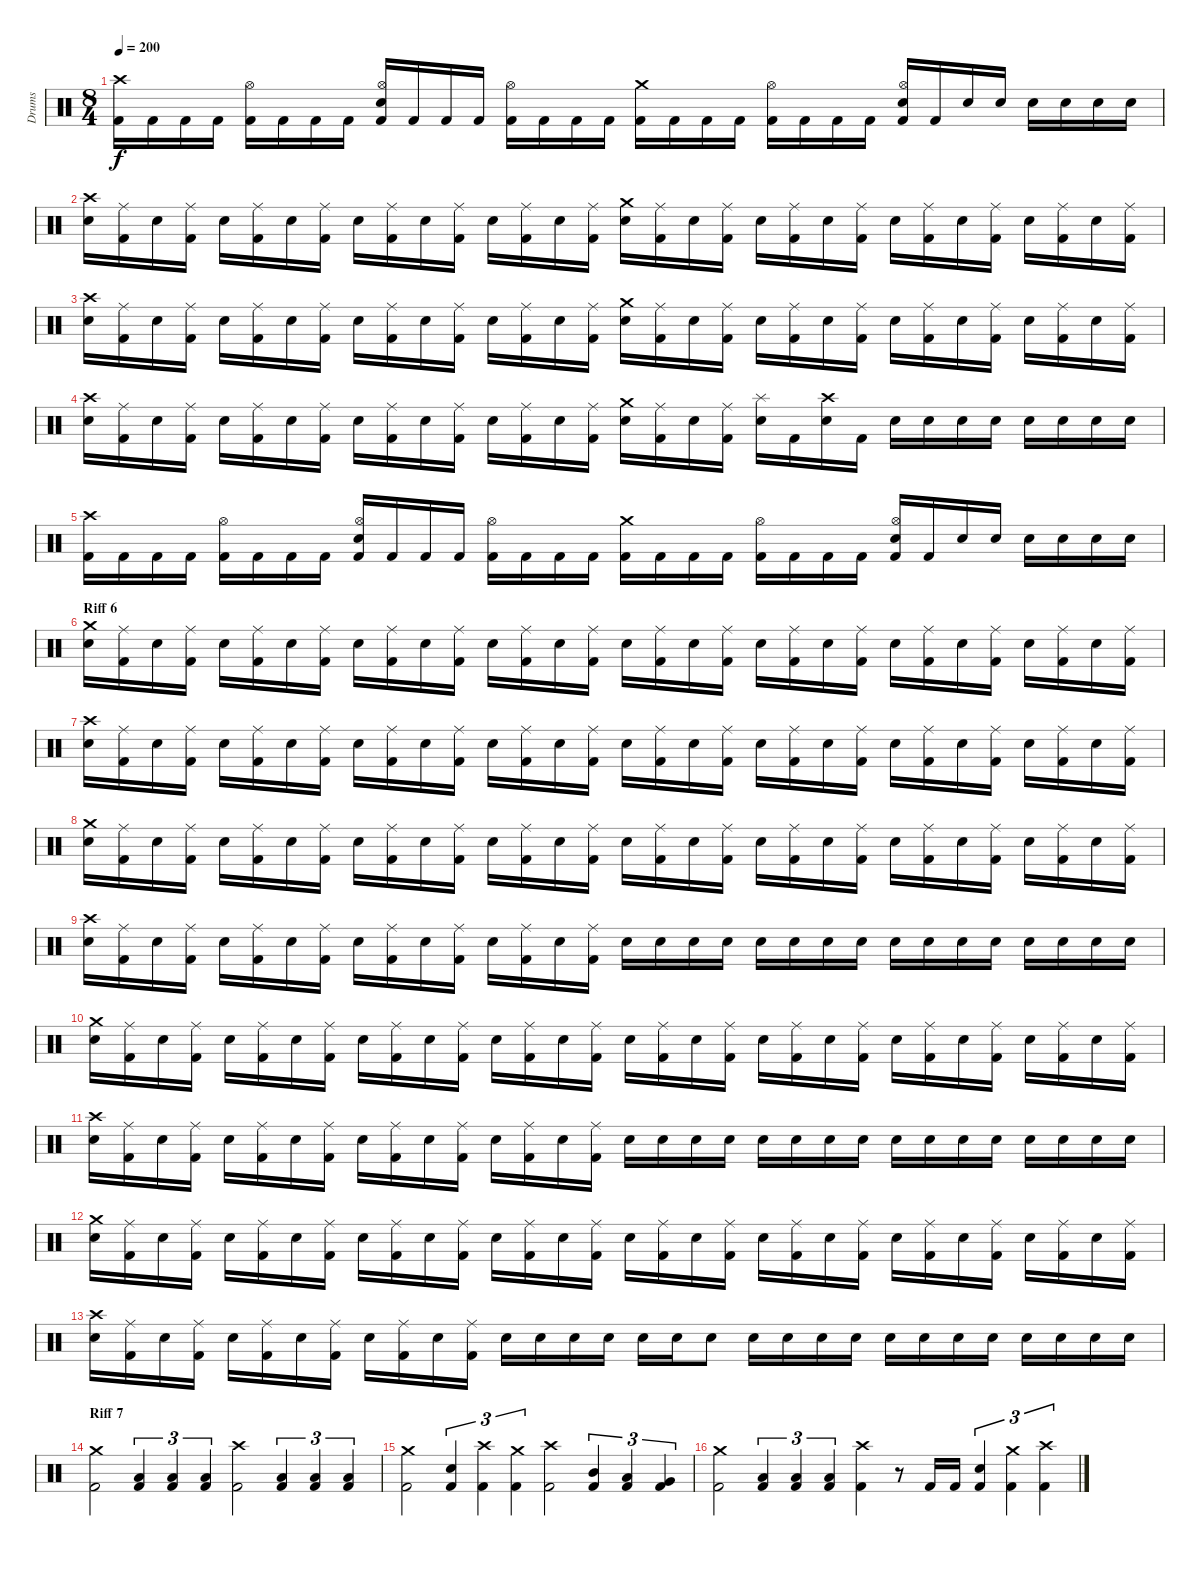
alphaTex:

\track ("Drums" "Drums") {instrument percussion}
\staff {score}
\articulation defaults
\ts (8 4)
\tempo 200
\clef neutral
\ks c
("Crash high (hit)" "Kick (hit) 2").16{dy f} "Kick (hit) 2".16 "Kick (hit) 2".16 "Kick (hit) 2".16 ("Hi-Hat (open)" "Kick (hit) 2").16 "Kick (hit) 2".16 "Kick (hit) 2".16 "Kick (hit) 2".16 ("Hi-Hat (open)" "Electric Snare (hit)" "Kick (hit) 2").16 "Kick (hit) 2".16 "Kick (hit) 2".16 "Kick (hit) 2".16 ("Hi-Hat (open)" "Kick (hit) 2").16 "Kick (hit) 2".16 "Kick (hit) 2".16 "Kick (hit) 2".16 ("Crash medium (hit)" "Kick (hit) 2").16 "Kick (hit) 2".16 "Kick (hit) 2".16 "Kick (hit) 2".16 ("Hi-Hat (open)" "Kick (hit) 2").16 "Kick (hit) 2".16 "Kick (hit) 2".16 "Kick (hit) 2".16 ("Hi-Hat (open)" "Electric Snare (hit)" "Kick (hit) 2").16 "Kick (hit) 2".16 "Electric Snare (hit)".16 "Electric Snare (hit)".16 "Electric Snare (hit)".16 "Electric Snare (hit)".16 "Electric Snare (hit)".16 "Electric Snare (hit)".16 |
("Crash high (hit)" "Electric Snare (hit)").16 ("Ride (middle)" "Kick (hit) 2").16 "Electric Snare (hit)".16 ("Ride (middle)" "Kick (hit) 2").16 "Electric Snare (hit)".16 ("Ride (middle)" "Kick (hit) 2").16 "Electric Snare (hit)".16 ("Ride (middle)" "Kick (hit) 2").16 "Electric Snare (hit)".16 ("Ride (middle)" "Kick (hit) 2").16 "Electric Snare (hit)".16 ("Ride (middle)" "Kick (hit) 2").16 "Electric Snare (hit)".16 ("Ride (middle)" "Kick (hit) 2").16 "Electric Snare (hit)".16 ("Ride (middle)" "Kick (hit) 2").16 ("Crash medium (hit)" "Electric Snare (hit)").16 ("Ride (middle)" "Kick (hit) 2").16 "Electric Snare (hit)".16 ("Ride (middle)" "Kick (hit) 2").16 "Electric Snare (hit)".16 ("Ride (middle)" "Kick (hit) 2").16 "Electric Snare (hit)".16 ("Ride (middle)" "Kick (hit) 2").16 "Electric Snare (hit)".16 ("Ride (middle)" "Kick (hit) 2").16 "Electric Snare (hit)".16 ("Ride (middle)" "Kick (hit) 2").16 "Electric Snare (hit)".16 ("Ride (middle)" "Kick (hit) 2").16 "Electric Snare (hit)".16 ("Ride (middle)" "Kick (hit) 2").16 |
("Crash high (hit)" "Electric Snare (hit)").16 ("Ride (middle)" "Kick (hit) 2").16 "Electric Snare (hit)".16 ("Ride (middle)" "Kick (hit) 2").16 "Electric Snare (hit)".16 ("Ride (middle)" "Kick (hit) 2").16 "Electric Snare (hit)".16 ("Ride (middle)" "Kick (hit) 2").16 "Electric Snare (hit)".16 ("Ride (middle)" "Kick (hit) 2").16 "Electric Snare (hit)".16 ("Ride (middle)" "Kick (hit) 2").16 "Electric Snare (hit)".16 ("Ride (middle)" "Kick (hit) 2").16 "Electric Snare (hit)".16 ("Ride (middle)" "Kick (hit) 2").16 ("Crash medium (hit)" "Electric Snare (hit)").16 ("Ride (middle)" "Kick (hit) 2").16 "Electric Snare (hit)".16 ("Ride (middle)" "Kick (hit) 2").16 "Electric Snare (hit)".16 ("Ride (middle)" "Kick (hit) 2").16 "Electric Snare (hit)".16 ("Ride (middle)" "Kick (hit) 2").16 "Electric Snare (hit)".16 ("Ride (middle)" "Kick (hit) 2").16 "Electric Snare (hit)".16 ("Ride (middle)" "Kick (hit) 2").16 "Electric Snare (hit)".16 ("Ride (middle)" "Kick (hit) 2").16 "Electric Snare (hit)".16 ("Ride (middle)" "Kick (hit) 2").16 |
("Crash high (hit)" "Electric Snare (hit)").16 ("Ride (middle)" "Kick (hit) 2").16 "Electric Snare (hit)".16 ("Ride (middle)" "Kick (hit) 2").16 "Electric Snare (hit)".16 ("Ride (middle)" "Kick (hit) 2").16 "Electric Snare (hit)".16 ("Ride (middle)" "Kick (hit) 2").16 "Electric Snare (hit)".16 ("Ride (middle)" "Kick (hit) 2").16 "Electric Snare (hit)".16 ("Ride (middle)" "Kick (hit) 2").16 "Electric Snare (hit)".16 ("Ride (middle)" "Kick (hit) 2").16 "Electric Snare (hit)".16 ("Ride (middle)" "Kick (hit) 2").16 ("Crash medium (hit)" "Electric Snare (hit)").16 ("Ride (middle)" "Kick (hit) 2").16 "Electric Snare (hit)".16 ("Ride (middle)" "Kick (hit) 2").16 ("Splash (hit)" "Electric Snare (hit)").16 "Kick (hit) 2".16 ("Crash high (hit)" "Electric Snare (hit)").16 "Kick (hit) 2".16 "Electric Snare (hit)".16 "Electric Snare (hit)".16 "Electric Snare (hit)".16 "Electric Snare (hit)".16 "Electric Snare (hit)".16 "Electric Snare (hit)".16 "Electric Snare (hit)".16 "Electric Snare (hit)".16 |
("Crash high (hit)" "Kick (hit) 2").16 "Kick (hit) 2".16 "Kick (hit) 2".16 "Kick (hit) 2".16 ("Hi-Hat (open)" "Kick (hit) 2").16 "Kick (hit) 2".16 "Kick (hit) 2".16 "Kick (hit) 2".16 ("Hi-Hat (open)" "Electric Snare (hit)" "Kick (hit) 2").16 "Kick (hit) 2".16 "Kick (hit) 2".16 "Kick (hit) 2".16 ("Hi-Hat (open)" "Kick (hit) 2").16 "Kick (hit) 2".16 "Kick (hit) 2".16 "Kick (hit) 2".16 ("Crash medium (hit)" "Kick (hit) 2").16 "Kick (hit) 2".16 "Kick (hit) 2".16 "Kick (hit) 2".16 ("Hi-Hat (open)" "Kick (hit) 2").16 "Kick (hit) 2".16 "Kick (hit) 2".16 "Kick (hit) 2".16 ("Hi-Hat (open)" "Electric Snare (hit)" "Kick (hit) 2").16 "Kick (hit) 2".16 "Electric Snare (hit)".16 "Electric Snare (hit)".16 "Electric Snare (hit)".16 "Electric Snare (hit)".16 "Electric Snare (hit)".16 "Electric Snare (hit)".16 |
\section ("" "Riff 6")
("Crash medium (hit)" "Electric Snare (hit)").16 ("Ride (middle)" "Kick (hit) 2").16 "Electric Snare (hit)".16 ("Ride (middle)" "Kick (hit) 2").16 "Electric Snare (hit)".16 ("Ride (middle)" "Kick (hit) 2").16 "Electric Snare (hit)".16 ("Ride (middle)" "Kick (hit) 2").16 "Electric Snare (hit)".16 ("Ride (middle)" "Kick (hit) 2").16 "Electric Snare (hit)".16 ("Ride (middle)" "Kick (hit) 2").16 "Electric Snare (hit)".16 ("Ride (middle)" "Kick (hit) 2").16 "Electric Snare (hit)".16 ("Ride (middle)" "Kick (hit) 2").16 "Electric Snare (hit)".16 ("Ride (middle)" "Kick (hit) 2").16 "Electric Snare (hit)".16 ("Ride (middle)" "Kick (hit) 2").16 "Electric Snare (hit)".16 ("Ride (middle)" "Kick (hit) 2").16 "Electric Snare (hit)".16 ("Ride (middle)" "Kick (hit) 2").16 "Electric Snare (hit)".16 ("Ride (middle)" "Kick (hit) 2").16 "Electric Snare (hit)".16 ("Ride (middle)" "Kick (hit) 2").16 "Electric Snare (hit)".16 ("Ride (middle)" "Kick (hit) 2").16 "Electric Snare (hit)".16 ("Ride (middle)" "Kick (hit) 2").16 |
("Crash high (hit)" "Electric Snare (hit)").16 ("Ride (middle)" "Kick (hit) 2").16 "Electric Snare (hit)".16 ("Ride (middle)" "Kick (hit) 2").16 "Electric Snare (hit)".16 ("Ride (middle)" "Kick (hit) 2").16 "Electric Snare (hit)".16 ("Ride (middle)" "Kick (hit) 2").16 "Electric Snare (hit)".16 ("Ride (middle)" "Kick (hit) 2").16 "Electric Snare (hit)".16 ("Ride (middle)" "Kick (hit) 2").16 "Electric Snare (hit)".16 ("Ride (middle)" "Kick (hit) 2").16 "Electric Snare (hit)".16 ("Ride (middle)" "Kick (hit) 2").16 "Electric Snare (hit)".16 ("Ride (middle)" "Kick (hit) 2").16 "Electric Snare (hit)".16 ("Ride (middle)" "Kick (hit) 2").16 "Electric Snare (hit)".16 ("Ride (middle)" "Kick (hit) 2").16 "Electric Snare (hit)".16 ("Ride (middle)" "Kick (hit) 2").16 "Electric Snare (hit)".16 ("Ride (middle)" "Kick (hit) 2").16 "Electric Snare (hit)".16 ("Ride (middle)" "Kick (hit) 2").16 "Electric Snare (hit)".16 ("Ride (middle)" "Kick (hit) 2").16 "Electric Snare (hit)".16 ("Ride (middle)" "Kick (hit) 2").16 |
("Crash medium (hit)" "Electric Snare (hit)").16 ("Ride (middle)" "Kick (hit) 2").16 "Electric Snare (hit)".16 ("Ride (middle)" "Kick (hit) 2").16 "Electric Snare (hit)".16 ("Ride (middle)" "Kick (hit) 2").16 "Electric Snare (hit)".16 ("Ride (middle)" "Kick (hit) 2").16 "Electric Snare (hit)".16 ("Ride (middle)" "Kick (hit) 2").16 "Electric Snare (hit)".16 ("Ride (middle)" "Kick (hit) 2").16 "Electric Snare (hit)".16 ("Ride (middle)" "Kick (hit) 2").16 "Electric Snare (hit)".16 ("Ride (middle)" "Kick (hit) 2").16 "Electric Snare (hit)".16 ("Ride (middle)" "Kick (hit) 2").16 "Electric Snare (hit)".16 ("Ride (middle)" "Kick (hit) 2").16 "Electric Snare (hit)".16 ("Ride (middle)" "Kick (hit) 2").16 "Electric Snare (hit)".16 ("Ride (middle)" "Kick (hit) 2").16 "Electric Snare (hit)".16 ("Ride (middle)" "Kick (hit) 2").16 "Electric Snare (hit)".16 ("Ride (middle)" "Kick (hit) 2").16 "Electric Snare (hit)".16 ("Ride (middle)" "Kick (hit) 2").16 "Electric Snare (hit)".16 ("Ride (middle)" "Kick (hit) 2").16 |
("Crash high (hit)" "Electric Snare (hit)").16 ("Ride (middle)" "Kick (hit) 2").16 "Electric Snare (hit)".16 ("Ride (middle)" "Kick (hit) 2").16 "Electric Snare (hit)".16 ("Ride (middle)" "Kick (hit) 2").16 "Electric Snare (hit)".16 ("Ride (middle)" "Kick (hit) 2").16 "Electric Snare (hit)".16 ("Ride (middle)" "Kick (hit) 2").16 "Electric Snare (hit)".16 ("Ride (middle)" "Kick (hit) 2").16 "Electric Snare (hit)".16 ("Ride (middle)" "Kick (hit) 2").16 "Electric Snare (hit)".16 ("Ride (middle)" "Kick (hit) 2").16 "Electric Snare (hit)".16 "Electric Snare (hit)".16 "Electric Snare (hit)".16 "Electric Snare (hit)".16 "Electric Snare (hit)".16 "Electric Snare (hit)".16 "Electric Snare (hit)".16 "Electric Snare (hit)".16 "Electric Snare (hit)".16 "Electric Snare (hit)".16 "Electric Snare (hit)".16 "Electric Snare (hit)".16 "Electric Snare (hit)".16 "Electric Snare (hit)".16 "Electric Snare (hit)".16 "Electric Snare (hit)".16 |
("Crash medium (hit)" "Electric Snare (hit)").16 ("Ride (middle)" "Kick (hit) 2").16 "Electric Snare (hit)".16 ("Ride (middle)" "Kick (hit) 2").16 "Electric Snare (hit)".16 ("Ride (middle)" "Kick (hit) 2").16 "Electric Snare (hit)".16 ("Ride (middle)" "Kick (hit) 2").16 "Electric Snare (hit)".16 ("Ride (middle)" "Kick (hit) 2").16 "Electric Snare (hit)".16 ("Ride (middle)" "Kick (hit) 2").16 "Electric Snare (hit)".16 ("Ride (middle)" "Kick (hit) 2").16 "Electric Snare (hit)".16 ("Ride (middle)" "Kick (hit) 2").16 "Electric Snare (hit)".16 ("Ride (middle)" "Kick (hit) 2").16 "Electric Snare (hit)".16 ("Ride (middle)" "Kick (hit) 2").16 "Electric Snare (hit)".16 ("Ride (middle)" "Kick (hit) 2").16 "Electric Snare (hit)".16 ("Ride (middle)" "Kick (hit) 2").16 "Electric Snare (hit)".16 ("Ride (middle)" "Kick (hit) 2").16 "Electric Snare (hit)".16 ("Ride (middle)" "Kick (hit) 2").16 "Electric Snare (hit)".16 ("Ride (middle)" "Kick (hit) 2").16 "Electric Snare (hit)".16 ("Ride (middle)" "Kick (hit) 2").16 |
("Crash high (hit)" "Electric Snare (hit)").16 ("Ride (middle)" "Kick (hit) 2").16 "Electric Snare (hit)".16 ("Ride (middle)" "Kick (hit) 2").16 "Electric Snare (hit)".16 ("Ride (middle)" "Kick (hit) 2").16 "Electric Snare (hit)".16 ("Ride (middle)" "Kick (hit) 2").16 "Electric Snare (hit)".16 ("Ride (middle)" "Kick (hit) 2").16 "Electric Snare (hit)".16 ("Ride (middle)" "Kick (hit) 2").16 "Electric Snare (hit)".16 ("Ride (middle)" "Kick (hit) 2").16 "Electric Snare (hit)".16 ("Ride (middle)" "Kick (hit) 2").16 "Electric Snare (hit)".16 "Electric Snare (hit)".16 "Electric Snare (hit)".16 "Electric Snare (hit)".16 "Electric Snare (hit)".16 "Electric Snare (hit)".16 "Electric Snare (hit)".16 "Electric Snare (hit)".16 "Electric Snare (hit)".16 "Electric Snare (hit)".16 "Electric Snare (hit)".16 "Electric Snare (hit)".16 "Electric Snare (hit)".16 "Electric Snare (hit)".16 "Electric Snare (hit)".16 "Electric Snare (hit)".16 |
("Crash medium (hit)" "Electric Snare (hit)").16 ("Ride (middle)" "Kick (hit) 2").16 "Electric Snare (hit)".16 ("Ride (middle)" "Kick (hit) 2").16 "Electric Snare (hit)".16 ("Ride (middle)" "Kick (hit) 2").16 "Electric Snare (hit)".16 ("Ride (middle)" "Kick (hit) 2").16 "Electric Snare (hit)".16 ("Ride (middle)" "Kick (hit) 2").16 "Electric Snare (hit)".16 ("Ride (middle)" "Kick (hit) 2").16 "Electric Snare (hit)".16 ("Ride (middle)" "Kick (hit) 2").16 "Electric Snare (hit)".16 ("Ride (middle)" "Kick (hit) 2").16 "Electric Snare (hit)".16 ("Ride (middle)" "Kick (hit) 2").16 "Electric Snare (hit)".16 ("Ride (middle)" "Kick (hit) 2").16 "Electric Snare (hit)".16 ("Ride (middle)" "Kick (hit) 2").16 "Electric Snare (hit)".16 ("Ride (middle)" "Kick (hit) 2").16 "Electric Snare (hit)".16 ("Ride (middle)" "Kick (hit) 2").16 "Electric Snare (hit)".16 ("Ride (middle)" "Kick (hit) 2").16 "Electric Snare (hit)".16 ("Ride (middle)" "Kick (hit) 2").16 "Electric Snare (hit)".16 ("Ride (middle)" "Kick (hit) 2").16 |
("Crash high (hit)" "Electric Snare (hit)").16 ("Ride (middle)" "Kick (hit) 2").16 "Electric Snare (hit)".16 ("Ride (middle)" "Kick (hit) 2").16 "Electric Snare (hit)".16 ("Ride (middle)" "Kick (hit) 2").16 "Electric Snare (hit)".16 ("Ride (middle)" "Kick (hit) 2").16 "Electric Snare (hit)".16 ("Ride (middle)" "Kick (hit) 2").16 "Electric Snare (hit)".16 ("Ride (middle)" "Kick (hit) 2").16 "Electric Snare (hit)".16 "Electric Snare (hit)".16 "Electric Snare (hit)".16 "Electric Snare (hit)".16 "Electric Snare (hit)".16 "Electric Snare (hit)".16 "Electric Snare (hit)".8 "Electric Snare (hit)".16 "Electric Snare (hit)".16 "Electric Snare (hit)".16 "Electric Snare (hit)".16 "Electric Snare (hit)".16 "Electric Snare (hit)".16 "Electric Snare (hit)".16 "Electric Snare (hit)".16 "Electric Snare (hit)".16 "Electric Snare (hit)".16 "Electric Snare (hit)".16 "Electric Snare (hit)".16 |
\section ("" "Riff 7")
("Crash medium (hit)" "Kick (hit) 2").2 ("Low Tom (hit)" "Kick (hit) 2").4{tu (3 2)} ("Low Tom (hit)" "Kick (hit) 2").4{tu (3 2)} ("Low Tom (hit)" "Kick (hit) 2").4{tu (3 2)} ("Crash high (hit)" "Kick (hit) 2").2 ("Low Tom (hit)" "Kick (hit) 2").4{tu (3 2)} ("Low Tom (hit)" "Kick (hit) 2").4{tu (3 2)} ("Low Tom (hit)" "Kick (hit) 2").4{tu (3 2)} |
("Crash medium (hit)" "Kick (hit) 2").2 ("Electric Snare (hit)" "Kick (hit) 2").4{tu (3 2)} ("Crash high (hit)" "Kick (hit) 2").4{tu (3 2)} ("Crash medium (hit)" "Kick (hit) 2").4{tu (3 2)} ("Crash high (hit)" "Kick (hit) 2").2 ("Mid Tom (hit)" "Kick (hit) 2").4{tu (3 2)} ("Low Tom (hit)" "Kick (hit) 2").4{tu (3 2)} ("Very Low Tom (hit)" "Kick (hit) 2").4{tu (3 2)} |
("Crash medium (hit)" "Kick (hit) 2").2 ("Low Tom (hit)" "Kick (hit) 2").4{tu (3 2)} ("Low Tom (hit)" "Kick (hit) 2").4{tu (3 2)} ("Low Tom (hit)" "Kick (hit) 2").4{tu (3 2)} ("Crash high (hit)" "Kick (hit) 2").4 r.8 "Kick (hit) 2".16 "Kick (hit) 2".16 ("Electric Snare (hit)" "Kick (hit) 2").4{tu (3 2)} ("Crash medium (hit)" "Kick (hit) 2").4{tu (3 2)} ("Crash high (hit)" "Kick (hit) 2").4{tu (3 2)}
